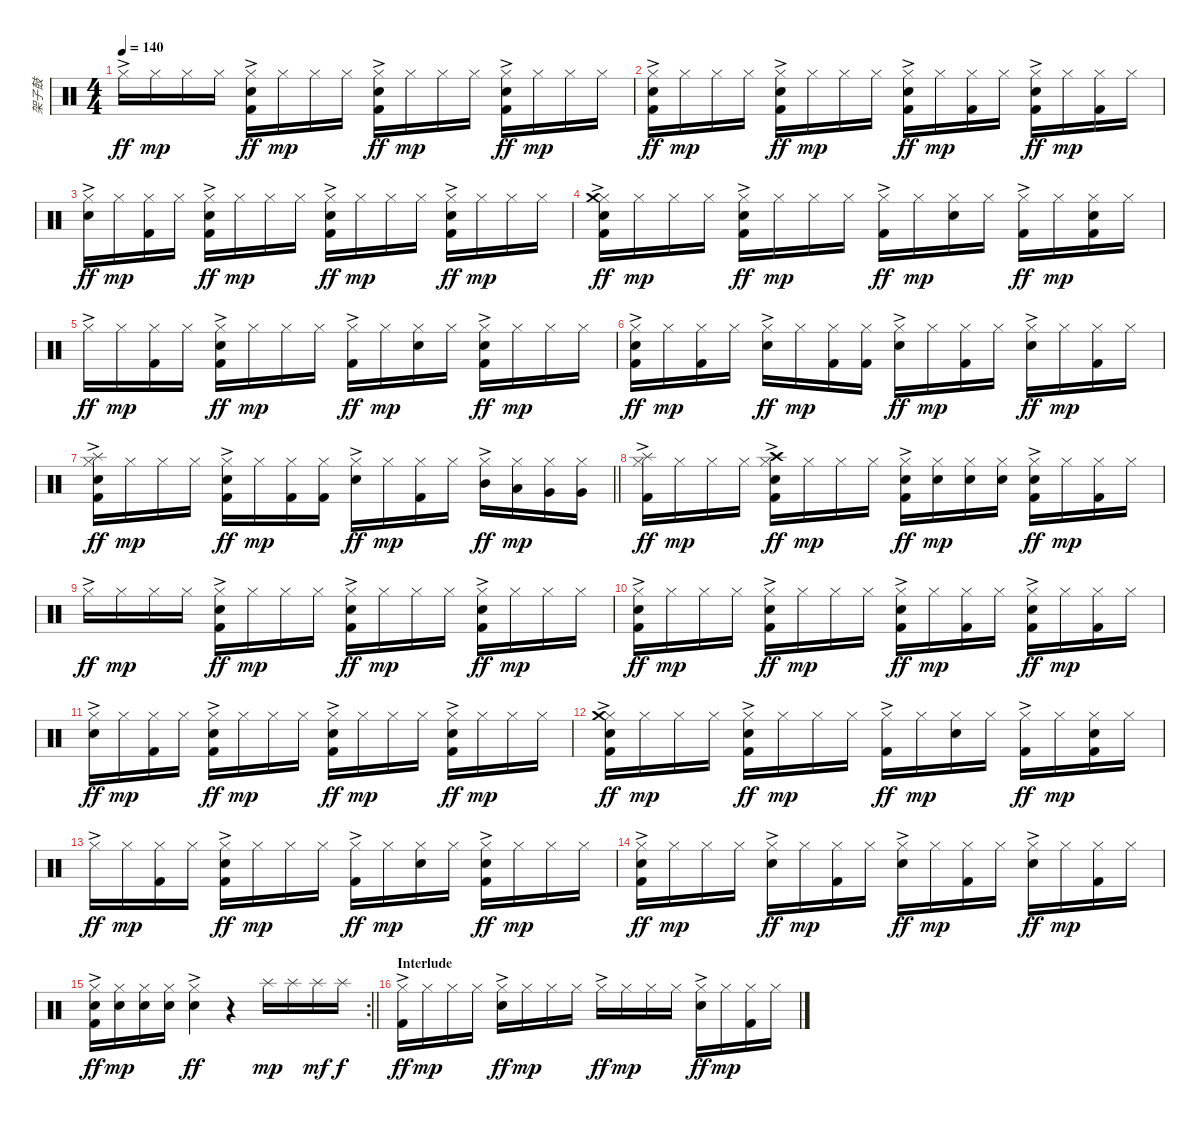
\track ("架子鼓" "架子鼓") {instrument percussion}
\staff {score}
\articulation defaults
\ts (4 4)
\tempo 140
\clef neutral
\ks c "Hi-Hat (closed)"{ac}.16{dy ff} "Hi-Hat (closed)".16{dy mp} "Hi-Hat (closed)".16 "Hi-Hat (closed)".16
("Hi-Hat (closed)"{ac} "Electric Snare (hit)" "Kick (hit) 2").16{dy ff} "Hi-Hat (closed)".16{dy mp} "Hi-Hat (closed)".16 "Hi-Hat (closed)".16 ("Hi-Hat (closed)"{ac} "Electric Snare (hit)" "Kick (hit) 2").16{dy ff} "Hi-Hat (closed)".16{dy mp} "Hi-Hat (closed)".16 "Hi-Hat (closed)".16 ("Hi-Hat (closed)"{ac} "Electric Snare (hit)" "Kick (hit) 2").16{dy ff} "Hi-Hat (closed)".16{dy mp} "Hi-Hat (closed)".16 "Hi-Hat (closed)".16 |
("Hi-Hat (closed)"{ac} "Electric Snare (hit)" "Kick (hit) 2").16{dy ff} "Hi-Hat (closed)".16{dy mp} "Hi-Hat (closed)".16 "Hi-Hat (closed)".16 ("Hi-Hat (closed)"{ac} "Electric Snare (hit)" "Kick (hit) 2").16{dy ff} "Hi-Hat (closed)".16{dy mp} "Hi-Hat (closed)".16 "Hi-Hat (closed)".16 ("Hi-Hat (closed)"{ac} "Electric Snare (hit)" "Kick (hit) 2").16{dy ff} "Hi-Hat (closed)".16{dy mp} ("Hi-Hat (closed)" "Kick (hit) 2").16 "Hi-Hat (closed)".16 ("Hi-Hat (closed)"{ac} "Electric Snare (hit)" "Kick (hit) 2").16{dy ff} "Hi-Hat (closed)".16{dy mp} ("Hi-Hat (closed)" "Kick (hit) 2").16 "Hi-Hat (closed)".16 |
("Hi-Hat (closed)"{ac} "Electric Snare (hit)").16{dy ff} "Hi-Hat (closed)".16{dy mp} ("Hi-Hat (closed)" "Kick (hit) 2").16 "Hi-Hat (closed)".16 ("Hi-Hat (closed)"{ac} "Electric Snare (hit)" "Kick (hit) 2").16{dy ff} "Hi-Hat (closed)".16{dy mp} "Hi-Hat (closed)".16 "Hi-Hat (closed)".16 ("Hi-Hat (closed)"{ac} "Electric Snare (hit)" "Kick (hit) 2").16{dy ff} "Hi-Hat (closed)".16{dy mp} "Hi-Hat (closed)".16 "Hi-Hat (closed)".16 ("Hi-Hat (closed)"{ac} "Electric Snare (hit)" "Kick (hit) 2").16{dy ff} "Hi-Hat (closed)".16{dy mp} "Hi-Hat (closed)".16 "Hi-Hat (closed)".16 |
("Hi-Hat (closed)"{ac} "Electric Snare (hit)" "Crash medium (hit)" "Kick (hit) 2").16{dy ff} "Hi-Hat (closed)".16{dy mp} "Hi-Hat (closed)".16 "Hi-Hat (closed)".16 ("Hi-Hat (closed)"{ac} "Electric Snare (hit)" "Kick (hit) 2").16{dy ff} "Hi-Hat (closed)".16{dy mp} "Hi-Hat (closed)".16 "Hi-Hat (closed)".16 ("Hi-Hat (closed)"{ac} "Kick (hit) 2").16{dy ff} "Hi-Hat (closed)".16{dy mp} ("Hi-Hat (closed)" "Electric Snare (hit)").16 "Hi-Hat (closed)".16 ("Hi-Hat (closed)"{ac} "Kick (hit) 2").16{dy ff} "Hi-Hat (closed)".16{dy mp} ("Hi-Hat (closed)" "Electric Snare (hit)" "Kick (hit) 2").16 "Hi-Hat (closed)".16 |
"Hi-Hat (closed)"{ac}.16{dy ff} "Hi-Hat (closed)".16{dy mp} ("Hi-Hat (closed)" "Kick (hit) 2").16 "Hi-Hat (closed)".16 ("Hi-Hat (closed)"{ac} "Electric Snare (hit)" "Kick (hit) 2").16{dy ff} "Hi-Hat (closed)".16{dy mp} "Hi-Hat (closed)".16 "Hi-Hat (closed)".16 ("Hi-Hat (closed)"{ac} "Kick (hit) 2").16{dy ff} "Hi-Hat (closed)".16{dy mp} ("Hi-Hat (closed)" "Electric Snare (hit)").16 "Hi-Hat (closed)".16 ("Hi-Hat (closed)"{ac} "Electric Snare (hit)" "Kick (hit) 2").16{dy ff} "Hi-Hat (closed)".16{dy mp} "Hi-Hat (closed)".16 "Hi-Hat (closed)".16 |
("Hi-Hat (closed)"{ac} "Electric Snare (hit)" "Kick (hit) 2").16{dy ff} "Hi-Hat (closed)".16{dy mp} ("Hi-Hat (closed)" "Kick (hit) 2").16 "Hi-Hat (closed)".16 ("Hi-Hat (closed)"{ac} "Electric Snare (hit)").16{dy ff} "Hi-Hat (closed)".16{dy mp} ("Hi-Hat (closed)" "Kick (hit) 2").16 ("Hi-Hat (closed)" "Kick (hit) 2").16 ("Hi-Hat (closed)"{ac} "Electric Snare (hit)").16{dy ff} "Hi-Hat (closed)".16{dy mp} ("Hi-Hat (closed)" "Kick (hit) 2").16 "Hi-Hat (closed)".16 ("Hi-Hat (closed)"{ac} "Electric Snare (hit)").16{dy ff} "Hi-Hat (closed)".16{dy mp} ("Hi-Hat (closed)" "Kick (hit) 2").16 "Hi-Hat (closed)".16 |
\barLineRight lightlight
("Hi-Hat (closed)"{ac} "Electric Snare (hit)" "Splash (hit)" "Kick (hit) 2").16{dy ff} "Hi-Hat (closed)".16{dy mp} "Hi-Hat (closed)".16 "Hi-Hat (closed)".16 ("Hi-Hat (closed)"{ac} "Electric Snare (hit)" "Kick (hit) 2").16{dy ff} "Hi-Hat (closed)".16{dy mp} ("Hi-Hat (closed)" "Kick (hit) 2").16 ("Hi-Hat (closed)" "Kick (hit) 2").16 ("Hi-Hat (closed)"{ac} "Electric Snare (hit)").16{dy ff} "Hi-Hat (closed)".16{dy mp} ("Hi-Hat (closed)" "Kick (hit) 2").16 "Hi-Hat (closed)".16 ("Hi-Hat (closed)"{ac} "Mid Tom (hit)").16{dy ff} ("Hi-Hat (closed)" "Low Tom (hit)").16{dy mp} ("Hi-Hat (closed)" "Very Low Tom (hit)").16 ("Hi-Hat (closed)" "Very Low Tom (hit)").16 |
("Hi-Hat (closed)"{ac} "Splash (hit)" "Kick (hit) 2").16{dy ff} "Hi-Hat (closed)".16{dy mp} "Hi-Hat (closed)".16 "Hi-Hat (closed)".16 ("Hi-Hat (closed)"{ac} "Electric Snare (hit)" "Crash high (hit)" "Kick (hit) 2").16{dy ff} "Hi-Hat (closed)".16{dy mp} "Hi-Hat (closed)".16 "Hi-Hat (closed)".16 ("Hi-Hat (closed)"{ac} "Electric Snare (hit)" "Kick (hit) 2").16{dy ff} ("Hi-Hat (closed)" "Electric Snare (hit)").16{dy mp} ("Hi-Hat (closed)" "Electric Snare (hit)").16 ("Hi-Hat (closed)" "Electric Snare (hit)").16 ("Hi-Hat (closed)"{ac} "Electric Snare (hit)" "Kick (hit) 2").16{dy ff} "Hi-Hat (closed)".16{dy mp} ("Hi-Hat (closed)" "Kick (hit) 2").16 "Hi-Hat (closed)".16 |
"Hi-Hat (closed)"{ac}.16{dy ff} "Hi-Hat (closed)".16{dy mp} "Hi-Hat (closed)".16 "Hi-Hat (closed)".16 ("Hi-Hat (closed)"{ac} "Electric Snare (hit)" "Kick (hit) 2").16{dy ff} "Hi-Hat (closed)".16{dy mp} "Hi-Hat (closed)".16 "Hi-Hat (closed)".16 ("Hi-Hat (closed)"{ac} "Electric Snare (hit)" "Kick (hit) 2").16{dy ff} "Hi-Hat (closed)".16{dy mp} "Hi-Hat (closed)".16 "Hi-Hat (closed)".16 ("Hi-Hat (closed)"{ac} "Electric Snare (hit)" "Kick (hit) 2").16{dy ff} "Hi-Hat (closed)".16{dy mp} "Hi-Hat (closed)".16 "Hi-Hat (closed)".16 |
("Hi-Hat (closed)"{ac} "Electric Snare (hit)" "Kick (hit) 2").16{dy ff} "Hi-Hat (closed)".16{dy mp} "Hi-Hat (closed)".16 "Hi-Hat (closed)".16 ("Hi-Hat (closed)"{ac} "Electric Snare (hit)" "Kick (hit) 2").16{dy ff} "Hi-Hat (closed)".16{dy mp} "Hi-Hat (closed)".16 "Hi-Hat (closed)".16 ("Hi-Hat (closed)"{ac} "Electric Snare (hit)" "Kick (hit) 2").16{dy ff} "Hi-Hat (closed)".16{dy mp} ("Hi-Hat (closed)" "Kick (hit) 2").16 "Hi-Hat (closed)".16 ("Hi-Hat (closed)"{ac} "Electric Snare (hit)" "Kick (hit) 2").16{dy ff} "Hi-Hat (closed)".16{dy mp} ("Hi-Hat (closed)" "Kick (hit) 2").16 "Hi-Hat (closed)".16 |
("Hi-Hat (closed)"{ac} "Electric Snare (hit)").16{dy ff} "Hi-Hat (closed)".16{dy mp} ("Hi-Hat (closed)" "Kick (hit) 2").16 "Hi-Hat (closed)".16 ("Hi-Hat (closed)"{ac} "Electric Snare (hit)" "Kick (hit) 2").16{dy ff} "Hi-Hat (closed)".16{dy mp} "Hi-Hat (closed)".16 "Hi-Hat (closed)".16 ("Hi-Hat (closed)"{ac} "Electric Snare (hit)" "Kick (hit) 2").16{dy ff} "Hi-Hat (closed)".16{dy mp} "Hi-Hat (closed)".16 "Hi-Hat (closed)".16 ("Hi-Hat (closed)"{ac} "Electric Snare (hit)" "Kick (hit) 2").16{dy ff} "Hi-Hat (closed)".16{dy mp} "Hi-Hat (closed)".16 "Hi-Hat (closed)".16 |
("Hi-Hat (closed)"{ac} "Electric Snare (hit)" "Crash medium (hit)" "Kick (hit) 2").16{dy ff} "Hi-Hat (closed)".16{dy mp} "Hi-Hat (closed)".16 "Hi-Hat (closed)".16 ("Hi-Hat (closed)"{ac} "Electric Snare (hit)" "Kick (hit) 2").16{dy ff} "Hi-Hat (closed)".16{dy mp} "Hi-Hat (closed)".16 "Hi-Hat (closed)".16 ("Hi-Hat (closed)"{ac} "Kick (hit) 2").16{dy ff} "Hi-Hat (closed)".16{dy mp} ("Hi-Hat (closed)" "Electric Snare (hit)").16 "Hi-Hat (closed)".16 ("Hi-Hat (closed)"{ac} "Kick (hit) 2").16{dy ff} "Hi-Hat (closed)".16{dy mp} ("Hi-Hat (closed)" "Electric Snare (hit)" "Kick (hit) 2").16 "Hi-Hat (closed)".16 |
"Hi-Hat (closed)"{ac}.16{dy ff} "Hi-Hat (closed)".16{dy mp} ("Hi-Hat (closed)" "Kick (hit) 2").16 "Hi-Hat (closed)".16 ("Hi-Hat (closed)"{ac} "Electric Snare (hit)" "Kick (hit) 2").16{dy ff} "Hi-Hat (closed)".16{dy mp} "Hi-Hat (closed)".16 "Hi-Hat (closed)".16 ("Hi-Hat (closed)"{ac} "Kick (hit) 2").16{dy ff} "Hi-Hat (closed)".16{dy mp} ("Hi-Hat (closed)" "Electric Snare (hit)").16 "Hi-Hat (closed)".16 ("Hi-Hat (closed)"{ac} "Electric Snare (hit)" "Kick (hit) 2").16{dy ff} "Hi-Hat (closed)".16{dy mp} "Hi-Hat (closed)".16 "Hi-Hat (closed)".16 |
("Hi-Hat (closed)"{ac} "Electric Snare (hit)" "Kick (hit) 2").16{dy ff} "Hi-Hat (closed)".16{dy mp} "Hi-Hat (closed)".16 "Hi-Hat (closed)".16 ("Hi-Hat (closed)"{ac} "Electric Snare (hit)").16{dy ff} "Hi-Hat (closed)".16{dy mp} ("Hi-Hat (closed)" "Kick (hit) 2").16 "Hi-Hat (closed)".16 ("Hi-Hat (closed)"{ac} "Electric Snare (hit)").16{dy ff} "Hi-Hat (closed)".16{dy mp} ("Hi-Hat (closed)" "Kick (hit) 2").16 "Hi-Hat (closed)".16 ("Hi-Hat (closed)"{ac} "Electric Snare (hit)").16{dy ff} "Hi-Hat (closed)".16{dy mp} ("Hi-Hat (closed)" "Kick (hit) 2").16 "Hi-Hat (closed)".16 |
\rc 2
\barLineRight lightlight
("Hi-Hat (closed)"{ac} "Electric Snare (hit)" "Kick (hit) 2").16{dy ff} ("Hi-Hat (closed)" "Electric Snare (hit)").16{dy mp} ("Hi-Hat (closed)" "Electric Snare (hit)").16 ("Hi-Hat (closed)" "Electric Snare (hit)").16 ("Hi-Hat (closed)"{ac} "Electric Snare (hit)").4{dy ff} r.4 "Splash (hit)".16{dy mp} "Splash (hit)".16 "Splash (hit)".16{dy mf} "Splash (hit)".16{dy f} |
\section ("" "Interlude")
("Hi-Hat (closed)"{ac} "Kick (hit) 2").16{dy ff} "Hi-Hat (closed)".16{dy mp} "Hi-Hat (closed)".16 "Hi-Hat (closed)".16 ("Hi-Hat (closed)"{ac} "Electric Snare (hit)").16{dy ff} "Hi-Hat (closed)".16{dy mp} "Hi-Hat (closed)".16 "Hi-Hat (closed)".16 "Hi-Hat (closed)"{ac}.16{dy ff} "Hi-Hat (closed)".16{dy mp} "Hi-Hat (closed)".16 "Hi-Hat (closed)".16 ("Hi-Hat (closed)"{ac} "Electric Snare (hit)").16{dy ff} "Hi-Hat (closed)".16{dy mp} ("Hi-Hat (closed)" "Kick (hit) 2").16 "Hi-Hat (closed)".16
